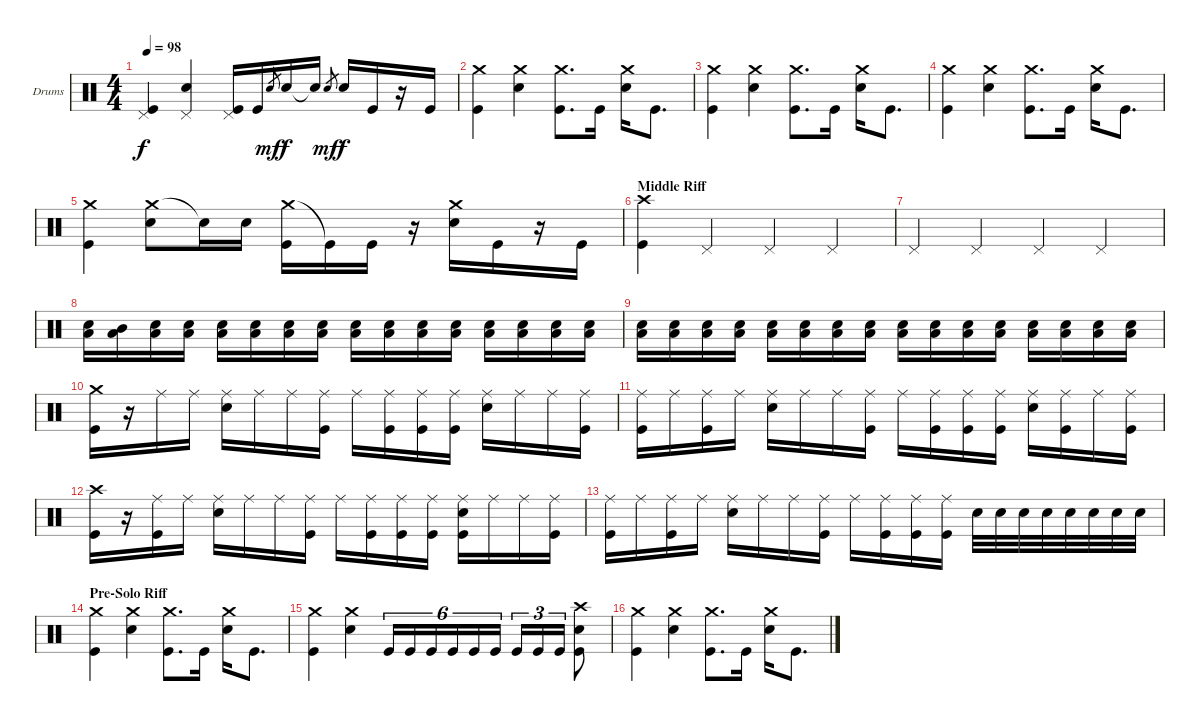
\bracketExtendMode groupsimilarinstruments
\firstSystemTrackNameOrientation horizontal
\otherSystemsTrackNameOrientation horizontal
\track ("Drumkit" "Drums") {instrument percussion}
\staff {score}
\articulation defaults
\ts (4 4)
\tempo 98
\clef neutral
\ks c
("Pedal Hi-Hat (hit)" "Kick (hit)").4{dy f} ("Pedal Hi-Hat (hit)" "Snare (hit) 2").4 ("Pedal Hi-Hat (hit)" "Kick (hit)").16 "Kick (hit)".16 "Snare (hit) 2".8{gr dy mf} "Snare (hit) 2".16{dy f} "Snare (hit) 2"{t}.16 "Snare (hit) 2".8{gr dy mf} "Snare (hit) 2".16{dy f} "Kick (hit)".16 r.16 "Kick (hit)".16 |
("Crash medium (hit)" "Kick (hit)").4 ("Crash medium (hit)" "Snare (hit) 2").4 ("Crash medium (hit)" "Kick (hit)").8{d} "Kick (hit)".16 ("Crash medium (hit)" "Snare (hit) 2").16 "Kick (hit)".8{d} |
("Crash medium (hit)" "Kick (hit)").4 ("Crash medium (hit)" "Snare (hit) 2").4 ("Crash medium (hit)" "Kick (hit)").8{d} "Kick (hit)".16 ("Crash medium (hit)" "Snare (hit) 2").16 "Kick (hit)".8{d} |
("Crash medium (hit)" "Kick (hit)").4 ("Crash medium (hit)" "Snare (hit) 2").4 ("Crash medium (hit)" "Kick (hit)").8{d} "Kick (hit)".16 ("Crash medium (hit)" "Snare (hit) 2").16 "Kick (hit)".8{d} |
("Crash medium (hit)" "Kick (hit)").4 ("Crash medium (hit)" "Snare (hit) 2").8 "Snare (hit) 2"{t}.16 "Snare (hit) 2".16 ("Crash medium (hit)" "Kick (hit)").16 "Kick (hit)"{t}.16 "Kick (hit)".16 r.16 ("Crash medium (hit)" "Snare (hit) 2").16 "Kick (hit)".16 r.16 "Kick (hit)".16 |
\section ("" "Middle Riff")
("Crash high (hit)" "Kick (hit)").4 "Pedal Hi-Hat (hit)".4 "Pedal Hi-Hat (hit)".4 "Pedal Hi-Hat (hit)".4 |
"Pedal Hi-Hat (hit)".4 "Pedal Hi-Hat (hit)".4 "Pedal Hi-Hat (hit)".4 "Pedal Hi-Hat (hit)".4 |
("Snare (hit) 2" "Low Tom (hit)").16 ("Mid Tom (hit)" "Low Tom (hit)").16 ("Snare (hit) 2" "Low Tom (hit)").16 ("Snare (hit) 2" "Low Tom (hit)").16 ("Snare (hit) 2" "Low Tom (hit)").16 ("Snare (hit) 2" "Low Tom (hit)").16 ("Snare (hit) 2" "Low Tom (hit)").16 ("Snare (hit) 2" "Low Tom (hit)").16 ("Snare (hit) 2" "Low Tom (hit)").16 ("Snare (hit) 2" "Low Tom (hit)").16 ("Snare (hit) 2" "Low Tom (hit)").16 ("Snare (hit) 2" "Low Tom (hit)").16 ("Snare (hit) 2" "Low Tom (hit)").16 ("Snare (hit) 2" "Low Tom (hit)").16 ("Snare (hit) 2" "Low Tom (hit)").16 ("Snare (hit) 2" "Low Tom (hit)").16 |
("Snare (hit) 2" "Low Tom (hit)").16 ("Snare (hit) 2" "Low Tom (hit)").16 ("Snare (hit) 2" "Low Tom (hit)").16 ("Snare (hit) 2" "Low Tom (hit)").16 ("Snare (hit) 2" "Low Tom (hit)").16 ("Snare (hit) 2" "Low Tom (hit)").16 ("Snare (hit) 2" "Low Tom (hit)").16 ("Snare (hit) 2" "Low Tom (hit)").16 ("Snare (hit) 2" "Low Tom (hit)").16 ("Snare (hit) 2" "Low Tom (hit)").16 ("Snare (hit) 2" "Low Tom (hit)").16 ("Snare (hit) 2" "Low Tom (hit)").16 ("Snare (hit) 2" "Low Tom (hit)").16 ("Snare (hit) 2" "Low Tom (hit)").16 ("Snare (hit) 2" "Low Tom (hit)").16 ("Snare (hit) 2" "Low Tom (hit)").16 |
("Crash medium (hit)" "Kick (hit)").16 r.16 "Ride (middle)".16 "Ride (middle)".16 ("Ride (middle)" "Snare (hit) 2").16 "Ride (middle)".16 "Ride (middle)".16 ("Ride (middle)" "Kick (hit)").16 "Ride (middle)".16 ("Ride (middle)" "Kick (hit)").16 ("Ride (middle)" "Kick (hit)").16 ("Ride (middle)" "Kick (hit)").16 ("Ride (middle)" "Snare (hit) 2").16 "Ride (middle)".16 "Ride (middle)".16 ("Ride (middle)" "Kick (hit)").16 |
("Ride (middle)" "Kick (hit)").16 "Ride (middle)".16 ("Ride (middle)" "Kick (hit)").16 "Ride (middle)".16 ("Ride (middle)" "Snare (hit) 2").16 "Ride (middle)".16 "Ride (middle)".16 ("Ride (middle)" "Kick (hit)").16 "Ride (middle)".16 ("Ride (middle)" "Kick (hit)").16 ("Ride (middle)" "Kick (hit)").16 ("Ride (middle)" "Kick (hit)").16 ("Ride (middle)" "Snare (hit) 2").16 ("Ride (middle)" "Kick (hit)").16 "Ride (middle)".16 ("Ride (middle)" "Kick (hit)").16 |
("Crash high (hit)" "Kick (hit)").16 r.16 ("Ride (middle)" "Kick (hit)").16 "Ride (middle)".16 ("Ride (middle)" "Snare (hit) 2").16 "Ride (middle)".16 "Ride (middle)".16 ("Ride (middle)" "Kick (hit)").16 "Ride (middle)".16 ("Ride (middle)" "Kick (hit)").16 ("Ride (middle)" "Kick (hit)").16 ("Ride (middle)" "Kick (hit)").16 ("Ride (middle)" "Snare (hit) 2" "Kick (hit)").16 "Ride (middle)".16 "Ride (middle)".16 ("Ride (middle)" "Kick (hit)").16 |
("Ride (middle)" "Kick (hit)").16 "Ride (middle)".16 ("Ride (middle)" "Kick (hit)").16 "Ride (middle)".16 ("Ride (middle)" "Snare (hit) 2").16 "Ride (middle)".16 "Ride (middle)".16 ("Ride (middle)" "Kick (hit)").16 "Ride (middle)".16 ("Ride (middle)" "Kick (hit)").16 ("Ride (middle)" "Kick (hit)").16 ("Ride (middle)" "Kick (hit)").16 "Snare (hit) 2".32 "Snare (hit) 2".32 "Snare (hit) 2".32 "Snare (hit) 2".32 "Snare (hit) 2".32 "Snare (hit) 2".32 "Snare (hit) 2".32 "Snare (hit) 2".32 |
\section ("" "Pre-Solo Riff")
("Crash medium (hit)" "Kick (hit)").4 ("Crash medium (hit)" "Snare (hit) 2").4 ("Crash medium (hit)" "Kick (hit)").8{d} "Kick (hit)".16 ("Crash medium (hit)" "Snare (hit) 2").16 "Kick (hit)".8{d} |
("Crash medium (hit)" "Kick (hit)").4 ("Crash medium (hit)" "Snare (hit) 2").4 "Kick (hit)".16{tu (6 4)} "Kick (hit)".16{tu (6 4)} "Kick (hit)".16{tu (6 4)} "Kick (hit)".16{tu (6 4)} "Kick (hit)".16{tu (6 4)} "Kick (hit)".16{tu (6 4)} "Kick (hit)".16{tu (3 2)} "Kick (hit)".16{tu (3 2)} "Kick (hit)".16{tu (3 2)} ("Crash high (hit)" "Snare (hit) 2" "Kick (hit)").8 |
("Crash medium (hit)" "Kick (hit)").4 ("Crash medium (hit)" "Snare (hit) 2").4 ("Crash medium (hit)" "Kick (hit)").8{d} "Kick (hit)".16 ("Crash medium (hit)" "Snare (hit) 2").16 "Kick (hit)".8{d}
